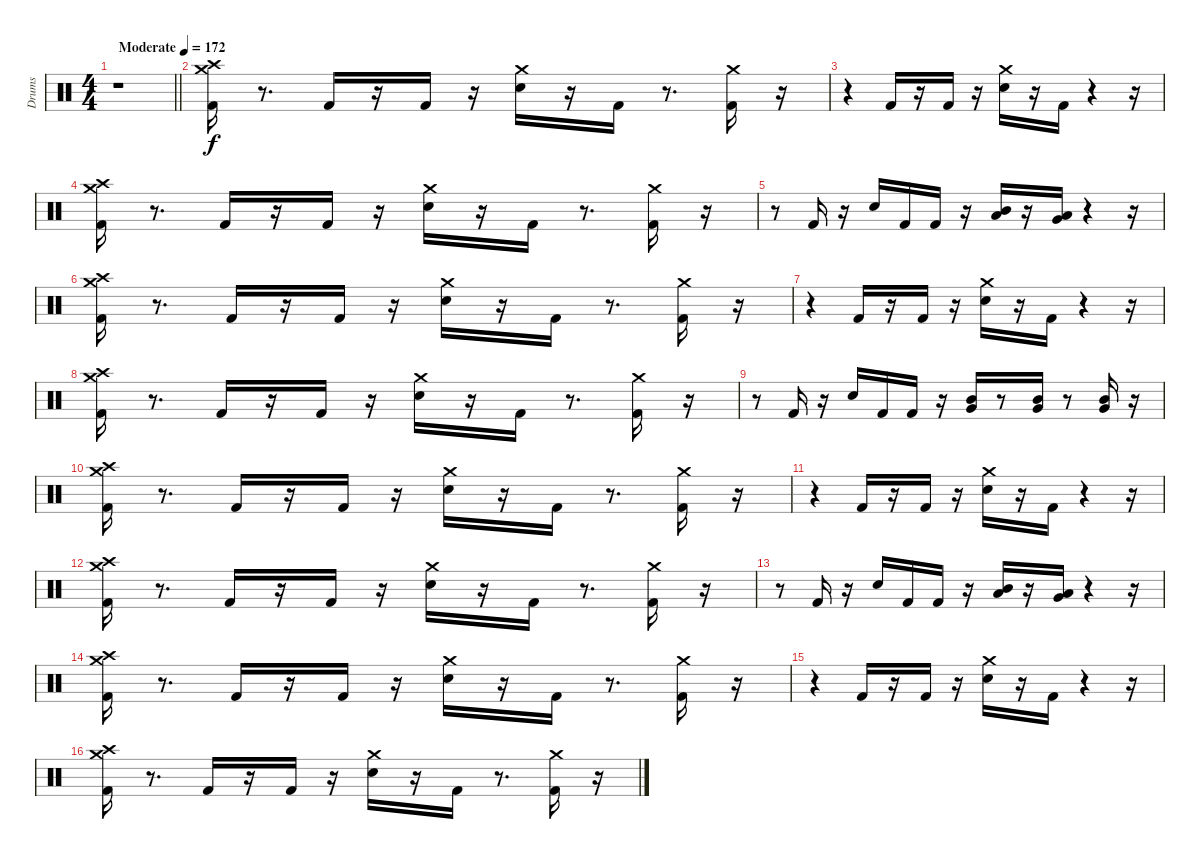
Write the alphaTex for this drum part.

\track ("Drums" "Drums") {instrument percussion}
\staff {score}
\articulation defaults
\ts (4 4)
\tempo (172 "Moderate")
\clef neutral
\barLineRight lightlight
\ks c
r.1{dy f} |
\section ("" " ")
("Kick (hit) 2" "Crash medium (hit)" "Crash high (hit)").16 r.8{d} "Kick (hit) 2".16 r.16 "Kick (hit) 2".16 r.16 ("Snare (hit) 2" "Crash medium (hit)").16 r.16 "Kick (hit) 2".16 r.8{d} ("Kick (hit) 2" "Crash medium (hit)").16 r.16 |
r.4 "Kick (hit) 2".16 r.16 "Kick (hit) 2".16 r.16 ("Snare (hit) 2" "Crash medium (hit)").16 r.16 "Kick (hit) 2".16 r.4 r.16 |
("Kick (hit) 2" "Crash medium (hit)" "Crash high (hit)").16 r.8{d} "Kick (hit) 2".16 r.16 "Kick (hit) 2".16 r.16 ("Snare (hit) 2" "Crash medium (hit)").16 r.16 "Kick (hit) 2".16 r.8{d} ("Kick (hit) 2" "Crash medium (hit)").16 r.16 |
r.8 "Kick (hit) 2".16 r.16 "Snare (hit) 2".16 "Kick (hit) 2".16 "Kick (hit) 2".16 r.16 ("Low Tom (hit)" "Mid Tom (hit)").16 r.16 ("Very Low Tom (hit)" "Low Tom (hit)").16 r.4 r.16 |
("Kick (hit) 2" "Crash medium (hit)" "Crash high (hit)").16 r.8{d} "Kick (hit) 2".16 r.16 "Kick (hit) 2".16 r.16 ("Snare (hit) 2" "Crash medium (hit)").16 r.16 "Kick (hit) 2".16 r.8{d} ("Kick (hit) 2" "Crash medium (hit)").16 r.16 |
r.4 "Kick (hit) 2".16 r.16 "Kick (hit) 2".16 r.16 ("Snare (hit) 2" "Crash medium (hit)").16 r.16 "Kick (hit) 2".16 r.4 r.16 |
("Kick (hit) 2" "Crash medium (hit)" "Crash high (hit)").16 r.8{d} "Kick (hit) 2".16 r.16 "Kick (hit) 2".16 r.16 ("Snare (hit) 2" "Crash medium (hit)").16 r.16 "Kick (hit) 2".16 r.8{d} ("Kick (hit) 2" "Crash medium (hit)").16 r.16 |
r.8 "Kick (hit) 2".16 r.16 "Snare (hit) 2".16 "Kick (hit) 2".16 "Kick (hit) 2".16 r.16 ("Very Low Tom (hit)" "Mid Tom (hit)").16 r.8 ("Very Low Tom (hit)" "Mid Tom (hit)").16 r.8 ("Very Low Tom (hit)" "Mid Tom (hit)").16 r.16 |
("Kick (hit) 2" "Crash medium (hit)" "Crash high (hit)").16 r.8{d} "Kick (hit) 2".16 r.16 "Kick (hit) 2".16 r.16 ("Snare (hit) 2" "Crash medium (hit)").16 r.16 "Kick (hit) 2".16 r.8{d} ("Kick (hit) 2" "Crash medium (hit)").16 r.16 |
r.4 "Kick (hit) 2".16 r.16 "Kick (hit) 2".16 r.16 ("Snare (hit) 2" "Crash medium (hit)").16 r.16 "Kick (hit) 2".16 r.4 r.16 |
("Kick (hit) 2" "Crash medium (hit)" "Crash high (hit)").16 r.8{d} "Kick (hit) 2".16 r.16 "Kick (hit) 2".16 r.16 ("Snare (hit) 2" "Crash medium (hit)").16 r.16 "Kick (hit) 2".16 r.8{d} ("Kick (hit) 2" "Crash medium (hit)").16 r.16 |
r.8 "Kick (hit) 2".16 r.16 "Snare (hit) 2".16 "Kick (hit) 2".16 "Kick (hit) 2".16 r.16 ("Low Tom (hit)" "Mid Tom (hit)").16 r.16 ("Very Low Tom (hit)" "Low Tom (hit)").16 r.4 r.16 |
("Kick (hit) 2" "Crash medium (hit)" "Crash high (hit)").16 r.8{d} "Kick (hit) 2".16 r.16 "Kick (hit) 2".16 r.16 ("Snare (hit) 2" "Crash medium (hit)").16 r.16 "Kick (hit) 2".16 r.8{d} ("Kick (hit) 2" "Crash medium (hit)").16 r.16 |
r.4 "Kick (hit) 2".16 r.16 "Kick (hit) 2".16 r.16 ("Snare (hit) 2" "Crash medium (hit)").16 r.16 "Kick (hit) 2".16 r.4 r.16 |
("Kick (hit) 2" "Crash medium (hit)" "Crash high (hit)").16 r.8{d} "Kick (hit) 2".16 r.16 "Kick (hit) 2".16 r.16 ("Snare (hit) 2" "Crash medium (hit)").16 r.16 "Kick (hit) 2".16 r.8{d} ("Kick (hit) 2" "Crash medium (hit)").16 r.16
